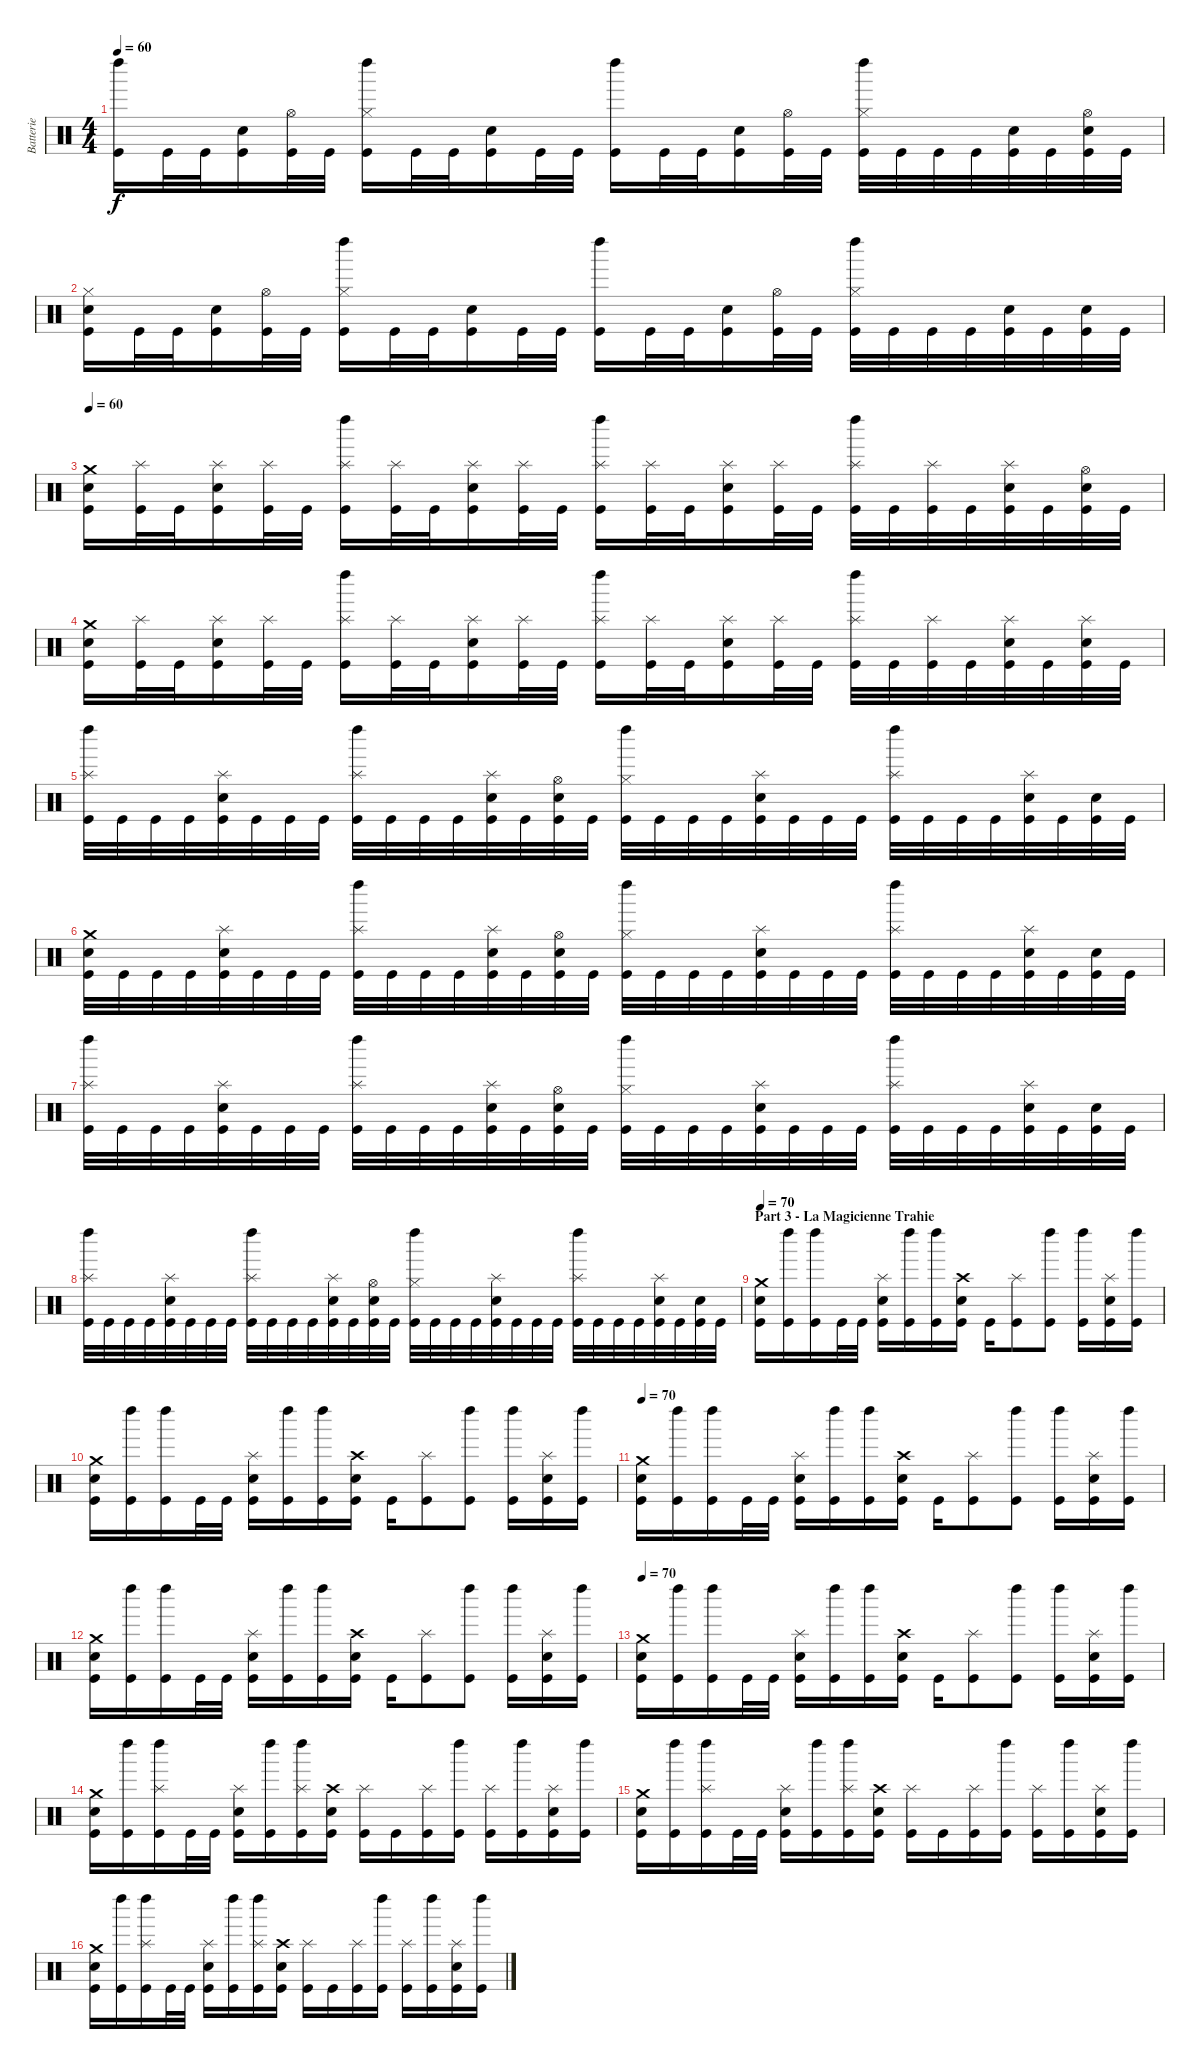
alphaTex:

\track ("Batterie" "Batterie") {instrument percussion}
\staff {score}
\articulation defaults
\ts (4 4)
\tempo 60
\clef neutral
\ks c
("Kick (hit)" "Left Maraca (hit)").16{dy f} "Kick (hit)".32 "Kick (hit)".32 ("Kick (hit)" "Electric Snare (hit)").16 ("Kick (hit)" "Hi-Hat (open)").32 "Kick (hit)".32 ("Kick (hit)" "Left Maraca (hit)" "Hi-Hat (closed)").16 "Kick (hit)".32 "Kick (hit)".32 ("Kick (hit)" "Electric Snare (hit)").16 "Kick (hit)".32 "Kick (hit)".32 ("Kick (hit)" "Left Maraca (hit)").16 "Kick (hit)".32 "Kick (hit)".32 ("Kick (hit)" "Electric Snare (hit)").16 ("Kick (hit)" "Hi-Hat (open)").32 "Kick (hit)".32 ("Kick (hit)" "Left Maraca (hit)" "Hi-Hat (closed)").32 "Kick (hit)".32 "Kick (hit)".32 "Kick (hit)".32 ("Kick (hit)" "Electric Snare (hit)").32 "Kick (hit)".32 ("Kick (hit)" "Electric Snare (hit)" "Hi-Hat (open)").32 "Kick (hit)".32 |
("Kick (hit)" "Electric Snare (hit)" "Hi-Hat (closed)").16 "Kick (hit)".32 "Kick (hit)".32 ("Kick (hit)" "Electric Snare (hit)").16 ("Kick (hit)" "Hi-Hat (open)").32 "Kick (hit)".32 ("Kick (hit)" "Left Maraca (hit)" "Hi-Hat (closed)").16 "Kick (hit)".32 "Kick (hit)".32 ("Kick (hit)" "Electric Snare (hit)").16 "Kick (hit)".32 "Kick (hit)".32 ("Kick (hit)" "Left Maraca (hit)").16 "Kick (hit)".32 "Kick (hit)".32 ("Kick (hit)" "Electric Snare (hit)").16 ("Kick (hit)" "Hi-Hat (open)").32 "Kick (hit)".32 ("Kick (hit)" "Left Maraca (hit)" "Hi-Hat (closed)").32 "Kick (hit)".32 "Kick (hit)".32 "Kick (hit)".32 ("Kick (hit)" "Electric Snare (hit)").32 "Kick (hit)".32 ("Kick (hit)" "Electric Snare (hit)").32 "Kick (hit)".32 |
\tempo 60
("Kick (hit)" "Electric Snare (hit)" "Crash medium (hit)").16 ("Kick (hit)" "Splash (hit)").32 "Kick (hit)".32 ("Kick (hit)" "Electric Snare (hit)" "Splash (hit)").16 ("Kick (hit)" "Splash (hit)").32 "Kick (hit)".32 ("Kick (hit)" "Left Maraca (hit)" "Splash (hit)").16 ("Kick (hit)" "Splash (hit)").32 "Kick (hit)".32 ("Kick (hit)" "Electric Snare (hit)" "Splash (hit)").16 ("Kick (hit)" "Splash (hit)").32 "Kick (hit)".32 ("Kick (hit)" "Left Maraca (hit)" "Splash (hit)").16 ("Kick (hit)" "Splash (hit)").32 "Kick (hit)".32 ("Kick (hit)" "Electric Snare (hit)" "Splash (hit)").16 ("Kick (hit)" "Splash (hit)").32 "Kick (hit)".32 ("Kick (hit)" "Left Maraca (hit)" "Splash (hit)").32 "Kick (hit)".32 ("Kick (hit)" "Splash (hit)").32 "Kick (hit)".32 ("Kick (hit)" "Electric Snare (hit)" "Splash (hit)").32 "Kick (hit)".32 ("Kick (hit)" "Electric Snare (hit)" "Hi-Hat (open)").32 "Kick (hit)".32 |
("Kick (hit)" "Electric Snare (hit)" "Crash medium (hit)").16 ("Kick (hit)" "Splash (hit)").32 "Kick (hit)".32 ("Kick (hit)" "Electric Snare (hit)" "Splash (hit)").16 ("Kick (hit)" "Splash (hit)").32 "Kick (hit)".32 ("Kick (hit)" "Left Maraca (hit)" "Splash (hit)").16 ("Kick (hit)" "Splash (hit)").32 "Kick (hit)".32 ("Kick (hit)" "Electric Snare (hit)" "Splash (hit)").16 ("Kick (hit)" "Splash (hit)").32 "Kick (hit)".32 ("Kick (hit)" "Left Maraca (hit)" "Splash (hit)").16 ("Kick (hit)" "Splash (hit)").32 "Kick (hit)".32 ("Kick (hit)" "Electric Snare (hit)" "Splash (hit)").16 ("Kick (hit)" "Splash (hit)").32 "Kick (hit)".32 ("Kick (hit)" "Left Maraca (hit)" "Splash (hit)").32 "Kick (hit)".32 ("Kick (hit)" "Splash (hit)").32 "Kick (hit)".32 ("Kick (hit)" "Electric Snare (hit)" "Splash (hit)").32 "Kick (hit)".32 ("Kick (hit)" "Electric Snare (hit)" "Splash (hit)").32 "Kick (hit)".32 |
("Kick (hit)" "Left Maraca (hit)" "Splash (hit)").32 "Kick (hit)".32 "Kick (hit)".32 "Kick (hit)".32 ("Kick (hit)" "Electric Snare (hit)" "Splash (hit)").32 "Kick (hit)".32 "Kick (hit)".32 "Kick (hit)".32 ("Kick (hit)" "Left Maraca (hit)" "Splash (hit)").32 "Kick (hit)".32 "Kick (hit)".32 "Kick (hit)".32 ("Kick (hit)" "Electric Snare (hit)" "Splash (hit)").32 "Kick (hit)".32 ("Kick (hit)" "Electric Snare (hit)" "Hi-Hat (open)").32 "Kick (hit)".32 ("Kick (hit)" "Left Maraca (hit)" "Hi-Hat (closed)").32 "Kick (hit)".32 "Kick (hit)".32 "Kick (hit)".32 ("Kick (hit)" "Electric Snare (hit)" "Splash (hit)").32 "Kick (hit)".32 "Kick (hit)".32 "Kick (hit)".32 ("Kick (hit)" "Left Maraca (hit)" "Splash (hit)").32 "Kick (hit)".32 "Kick (hit)".32 "Kick (hit)".32 ("Kick (hit)" "Electric Snare (hit)" "Splash (hit)").32 "Kick (hit)".32 ("Kick (hit)" "Electric Snare (hit)").32 "Kick (hit)".32 |
("Kick (hit)" "Electric Snare (hit)" "Crash medium (hit)").32 "Kick (hit)".32 "Kick (hit)".32 "Kick (hit)".32 ("Kick (hit)" "Electric Snare (hit)" "Splash (hit)").32 "Kick (hit)".32 "Kick (hit)".32 "Kick (hit)".32 ("Kick (hit)" "Left Maraca (hit)" "Splash (hit)").32 "Kick (hit)".32 "Kick (hit)".32 "Kick (hit)".32 ("Kick (hit)" "Electric Snare (hit)" "Splash (hit)").32 "Kick (hit)".32 ("Kick (hit)" "Electric Snare (hit)" "Hi-Hat (open)").32 "Kick (hit)".32 ("Kick (hit)" "Left Maraca (hit)" "Hi-Hat (closed)").32 "Kick (hit)".32 "Kick (hit)".32 "Kick (hit)".32 ("Kick (hit)" "Electric Snare (hit)" "Splash (hit)").32 "Kick (hit)".32 "Kick (hit)".32 "Kick (hit)".32 ("Kick (hit)" "Left Maraca (hit)" "Splash (hit)").32 "Kick (hit)".32 "Kick (hit)".32 "Kick (hit)".32 ("Kick (hit)" "Electric Snare (hit)" "Splash (hit)").32 "Kick (hit)".32 ("Kick (hit)" "Electric Snare (hit)").32 "Kick (hit)".32 |
("Kick (hit)" "Left Maraca (hit)" "Splash (hit)").32 "Kick (hit)".32 "Kick (hit)".32 "Kick (hit)".32 ("Kick (hit)" "Electric Snare (hit)" "Splash (hit)").32 "Kick (hit)".32 "Kick (hit)".32 "Kick (hit)".32 ("Kick (hit)" "Left Maraca (hit)" "Splash (hit)").32 "Kick (hit)".32 "Kick (hit)".32 "Kick (hit)".32 ("Kick (hit)" "Electric Snare (hit)" "Splash (hit)").32 "Kick (hit)".32 ("Kick (hit)" "Electric Snare (hit)" "Hi-Hat (open)").32 "Kick (hit)".32 ("Kick (hit)" "Left Maraca (hit)" "Hi-Hat (closed)").32 "Kick (hit)".32 "Kick (hit)".32 "Kick (hit)".32 ("Kick (hit)" "Electric Snare (hit)" "Splash (hit)").32 "Kick (hit)".32 "Kick (hit)".32 "Kick (hit)".32 ("Kick (hit)" "Left Maraca (hit)" "Splash (hit)").32 "Kick (hit)".32 "Kick (hit)".32 "Kick (hit)".32 ("Kick (hit)" "Electric Snare (hit)" "Splash (hit)").32 "Kick (hit)".32 ("Kick (hit)" "Electric Snare (hit)").32 "Kick (hit)".32 |
("Kick (hit)" "Left Maraca (hit)" "Splash (hit)").32 "Kick (hit)".32 "Kick (hit)".32 "Kick (hit)".32 ("Kick (hit)" "Electric Snare (hit)" "Splash (hit)").32 "Kick (hit)".32 "Kick (hit)".32 "Kick (hit)".32 ("Kick (hit)" "Left Maraca (hit)" "Splash (hit)").32 "Kick (hit)".32 "Kick (hit)".32 "Kick (hit)".32 ("Kick (hit)" "Electric Snare (hit)" "Splash (hit)").32 "Kick (hit)".32 ("Kick (hit)" "Electric Snare (hit)" "Hi-Hat (open)").32 "Kick (hit)".32 ("Kick (hit)" "Left Maraca (hit)" "Hi-Hat (closed)").32 "Kick (hit)".32 "Kick (hit)".32 "Kick (hit)".32 ("Kick (hit)" "Electric Snare (hit)" "Splash (hit)").32 "Kick (hit)".32 "Kick (hit)".32 "Kick (hit)".32 ("Kick (hit)" "Left Maraca (hit)" "Splash (hit)").32 "Kick (hit)".32 "Kick (hit)".32 "Kick (hit)".32 ("Kick (hit)" "Electric Snare (hit)" "Splash (hit)").32 "Kick (hit)".32 ("Kick (hit)" "Electric Snare (hit)").32 "Kick (hit)".32 |
\section ("" "Part 3 - La Magicienne Trahie")
\tempo 70
("Kick (hit)" "Electric Snare (hit)" "Crash medium (hit)").16 ("Kick (hit)" "Left Maraca (hit)").16 ("Kick (hit)" "Left Maraca (hit)").16 "Kick (hit)".32 "Kick (hit)".32 ("Kick (hit)" "Electric Snare (hit)" "Splash (hit)").16 ("Kick (hit)" "Left Maraca (hit)").16 ("Kick (hit)" "Left Maraca (hit)").16 ("Kick (hit)" "Electric Snare (hit)" "Crash high (hit)").16 "Kick (hit)".16 ("Kick (hit)" "Splash (hit)").8 ("Kick (hit)" "Left Maraca (hit)").8 ("Kick (hit)" "Left Maraca (hit)").16 ("Kick (hit)" "Electric Snare (hit)" "Splash (hit)").16 ("Kick (hit)" "Left Maraca (hit)").16 |
("Kick (hit)" "Electric Snare (hit)" "Crash medium (hit)").16 ("Kick (hit)" "Left Maraca (hit)").16 ("Kick (hit)" "Left Maraca (hit)").16 "Kick (hit)".32 "Kick (hit)".32 ("Kick (hit)" "Electric Snare (hit)" "Splash (hit)").16 ("Kick (hit)" "Left Maraca (hit)").16 ("Kick (hit)" "Left Maraca (hit)").16 ("Kick (hit)" "Electric Snare (hit)" "Crash high (hit)").16 "Kick (hit)".16 ("Kick (hit)" "Splash (hit)").8 ("Kick (hit)" "Left Maraca (hit)").8 ("Kick (hit)" "Left Maraca (hit)").16 ("Kick (hit)" "Electric Snare (hit)" "Splash (hit)").16 ("Kick (hit)" "Left Maraca (hit)").16 |
\tempo 70
("Kick (hit)" "Electric Snare (hit)" "Crash medium (hit)").16 ("Kick (hit)" "Left Maraca (hit)").16 ("Kick (hit)" "Left Maraca (hit)").16 "Kick (hit)".32 "Kick (hit)".32 ("Kick (hit)" "Electric Snare (hit)" "Splash (hit)").16 ("Kick (hit)" "Left Maraca (hit)").16 ("Kick (hit)" "Left Maraca (hit)").16 ("Kick (hit)" "Electric Snare (hit)" "Crash high (hit)").16 "Kick (hit)".16 ("Kick (hit)" "Splash (hit)").8 ("Kick (hit)" "Left Maraca (hit)").8 ("Kick (hit)" "Left Maraca (hit)").16 ("Kick (hit)" "Electric Snare (hit)" "Splash (hit)").16 ("Kick (hit)" "Left Maraca (hit)").16 |
("Kick (hit)" "Electric Snare (hit)" "Crash medium (hit)").16 ("Kick (hit)" "Left Maraca (hit)").16 ("Kick (hit)" "Left Maraca (hit)").16 "Kick (hit)".32 "Kick (hit)".32 ("Kick (hit)" "Electric Snare (hit)" "Splash (hit)").16 ("Kick (hit)" "Left Maraca (hit)").16 ("Kick (hit)" "Left Maraca (hit)").16 ("Kick (hit)" "Electric Snare (hit)" "Crash high (hit)").16 "Kick (hit)".16 ("Kick (hit)" "Splash (hit)").8 ("Kick (hit)" "Left Maraca (hit)").8 ("Kick (hit)" "Left Maraca (hit)").16 ("Kick (hit)" "Electric Snare (hit)" "Splash (hit)").16 ("Kick (hit)" "Left Maraca (hit)").16 |
\tempo 70
("Kick (hit)" "Electric Snare (hit)" "Crash medium (hit)").16 ("Kick (hit)" "Left Maraca (hit)").16 ("Kick (hit)" "Left Maraca (hit)").16 "Kick (hit)".32 "Kick (hit)".32 ("Kick (hit)" "Electric Snare (hit)" "Splash (hit)").16 ("Kick (hit)" "Left Maraca (hit)").16 ("Kick (hit)" "Left Maraca (hit)").16 ("Kick (hit)" "Electric Snare (hit)" "Crash high (hit)").16 "Kick (hit)".16 ("Kick (hit)" "Splash (hit)").8 ("Kick (hit)" "Left Maraca (hit)").8 ("Kick (hit)" "Left Maraca (hit)").16 ("Kick (hit)" "Electric Snare (hit)" "Splash (hit)").16 ("Kick (hit)" "Left Maraca (hit)").16 |
("Kick (hit)" "Electric Snare (hit)" "Crash medium (hit)").16 ("Kick (hit)" "Left Maraca (hit)").16 ("Kick (hit)" "Left Maraca (hit)" "Splash (hit)").16 "Kick (hit)".32 "Kick (hit)".32 ("Kick (hit)" "Electric Snare (hit)" "Splash (hit)").16 ("Kick (hit)" "Left Maraca (hit)").16 ("Kick (hit)" "Left Maraca (hit)" "Splash (hit)").16 ("Kick (hit)" "Electric Snare (hit)" "Crash high (hit)").16 ("Kick (hit)" "Splash (hit)").16 "Kick (hit)".16 ("Kick (hit)" "Splash (hit)").16 ("Kick (hit)" "Left Maraca (hit)").16 ("Kick (hit)" "Splash (hit)").16 ("Kick (hit)" "Left Maraca (hit)").16 ("Kick (hit)" "Electric Snare (hit)" "Splash (hit)").16 ("Kick (hit)" "Left Maraca (hit)").16 |
("Kick (hit)" "Electric Snare (hit)" "Crash medium (hit)").16 ("Kick (hit)" "Left Maraca (hit)").16 ("Kick (hit)" "Left Maraca (hit)" "Splash (hit)").16 "Kick (hit)".32 "Kick (hit)".32 ("Kick (hit)" "Electric Snare (hit)" "Splash (hit)").16 ("Kick (hit)" "Left Maraca (hit)").16 ("Kick (hit)" "Left Maraca (hit)" "Splash (hit)").16 ("Kick (hit)" "Electric Snare (hit)" "Crash high (hit)").16 ("Kick (hit)" "Splash (hit)").16 "Kick (hit)".16 ("Kick (hit)" "Splash (hit)").16 ("Kick (hit)" "Left Maraca (hit)").16 ("Kick (hit)" "Splash (hit)").16 ("Kick (hit)" "Left Maraca (hit)").16 ("Kick (hit)" "Electric Snare (hit)" "Splash (hit)").16 ("Kick (hit)" "Left Maraca (hit)").16 |
("Kick (hit)" "Electric Snare (hit)" "Crash medium (hit)").16 ("Kick (hit)" "Left Maraca (hit)").16 ("Kick (hit)" "Left Maraca (hit)" "Splash (hit)").16 "Kick (hit)".32 "Kick (hit)".32 ("Kick (hit)" "Electric Snare (hit)" "Splash (hit)").16 ("Kick (hit)" "Left Maraca (hit)").16 ("Kick (hit)" "Left Maraca (hit)" "Splash (hit)").16 ("Kick (hit)" "Electric Snare (hit)" "Crash high (hit)").16 ("Kick (hit)" "Splash (hit)").16 "Kick (hit)".16 ("Kick (hit)" "Splash (hit)").16 ("Kick (hit)" "Left Maraca (hit)").16 ("Kick (hit)" "Splash (hit)").16 ("Kick (hit)" "Left Maraca (hit)").16 ("Kick (hit)" "Electric Snare (hit)" "Splash (hit)").16 ("Kick (hit)" "Left Maraca (hit)").16
